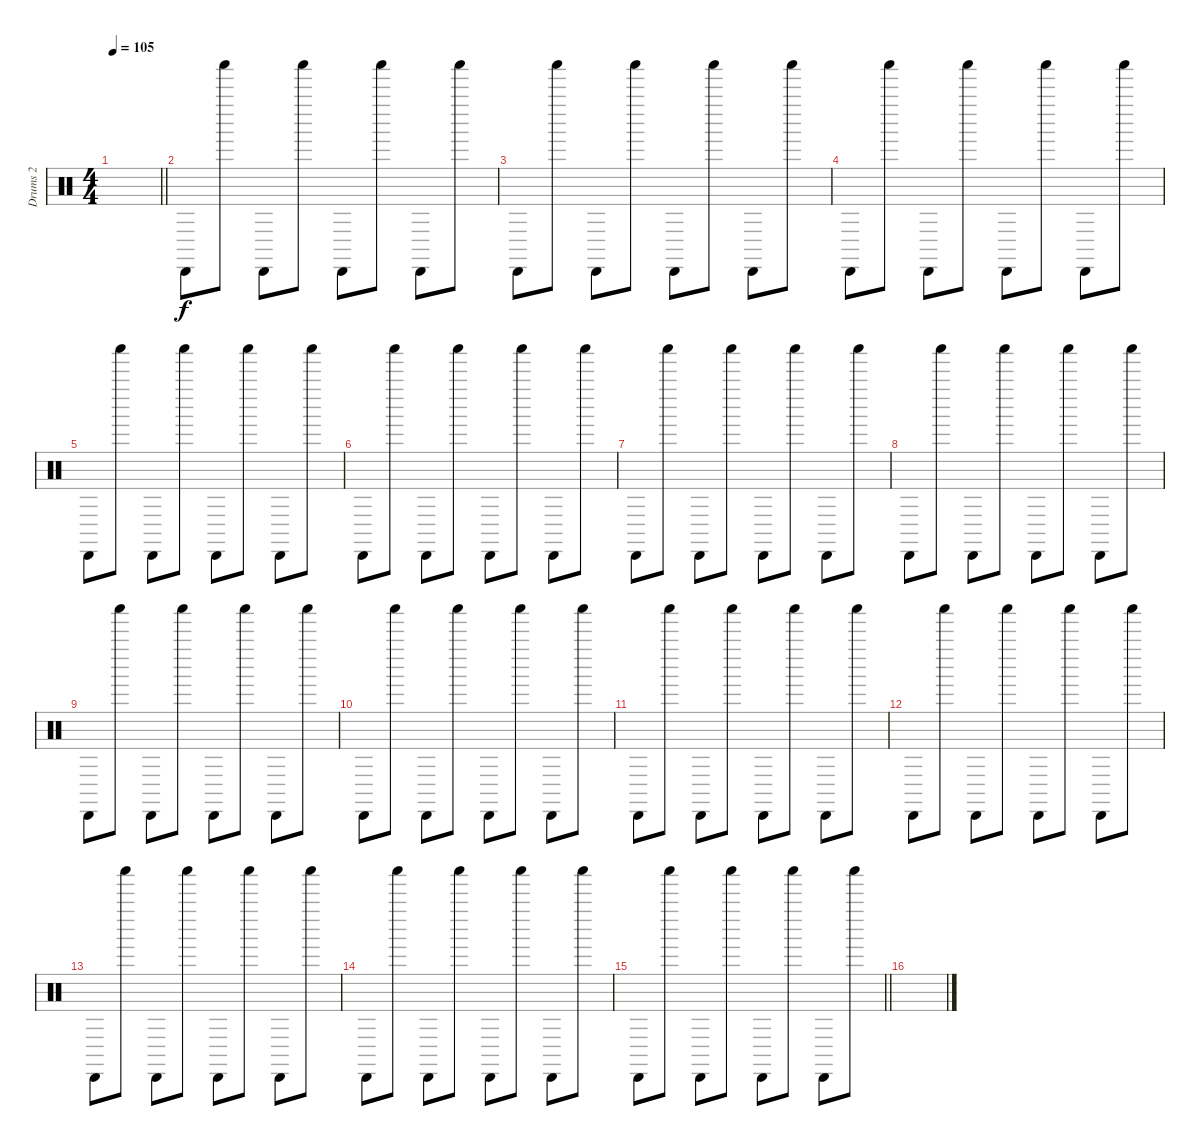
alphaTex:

\track ("Drums 2" "Drums 2") {instrument percussion}
\staff {score}
\articulation defaults
\ts (4 4)
\tempo 105
\clef neutral
\barLineRight lightlight
\ks c
|
\section ("" "")
"Cabasa (hit)".8 "Shaker (hit)".8 "Cabasa (hit)".8 "Shaker (hit)".8 "Cabasa (hit)".8 "Shaker (hit)".8 "Cabasa (hit)".8 "Shaker (hit)".8 |
"Cabasa (hit)".8 "Shaker (hit)".8 "Cabasa (hit)".8 "Shaker (hit)".8 "Cabasa (hit)".8 "Shaker (hit)".8 "Cabasa (hit)".8 "Shaker (hit)".8 |
"Cabasa (hit)".8 "Shaker (hit)".8 "Cabasa (hit)".8 "Shaker (hit)".8 "Cabasa (hit)".8 "Shaker (hit)".8 "Cabasa (hit)".8 "Shaker (hit)".8 |
"Cabasa (hit)".8 "Shaker (hit)".8 "Cabasa (hit)".8 "Shaker (hit)".8 "Cabasa (hit)".8 "Shaker (hit)".8 "Cabasa (hit)".8 "Shaker (hit)".8 |
"Cabasa (hit)".8 "Shaker (hit)".8 "Cabasa (hit)".8 "Shaker (hit)".8 "Cabasa (hit)".8 "Shaker (hit)".8 "Cabasa (hit)".8 "Shaker (hit)".8 |
"Cabasa (hit)".8 "Shaker (hit)".8 "Cabasa (hit)".8 "Shaker (hit)".8 "Cabasa (hit)".8 "Shaker (hit)".8 "Cabasa (hit)".8 "Shaker (hit)".8 |
"Cabasa (hit)".8 "Shaker (hit)".8 "Cabasa (hit)".8 "Shaker (hit)".8 "Cabasa (hit)".8 "Shaker (hit)".8 "Cabasa (hit)".8 "Shaker (hit)".8 |
"Cabasa (hit)".8 "Shaker (hit)".8 "Cabasa (hit)".8 "Shaker (hit)".8 "Cabasa (hit)".8 "Shaker (hit)".8 "Cabasa (hit)".8 "Shaker (hit)".8 |
"Cabasa (hit)".8 "Shaker (hit)".8 "Cabasa (hit)".8 "Shaker (hit)".8 "Cabasa (hit)".8 "Shaker (hit)".8 "Cabasa (hit)".8 "Shaker (hit)".8 |
"Cabasa (hit)".8 "Shaker (hit)".8 "Cabasa (hit)".8 "Shaker (hit)".8 "Cabasa (hit)".8 "Shaker (hit)".8 "Cabasa (hit)".8 "Shaker (hit)".8 |
"Cabasa (hit)".8 "Shaker (hit)".8 "Cabasa (hit)".8 "Shaker (hit)".8 "Cabasa (hit)".8 "Shaker (hit)".8 "Cabasa (hit)".8 "Shaker (hit)".8 |
"Cabasa (hit)".8 "Shaker (hit)".8 "Cabasa (hit)".8 "Shaker (hit)".8 "Cabasa (hit)".8 "Shaker (hit)".8 "Cabasa (hit)".8 "Shaker (hit)".8 |
"Cabasa (hit)".8 "Shaker (hit)".8 "Cabasa (hit)".8 "Shaker (hit)".8 "Cabasa (hit)".8 "Shaker (hit)".8 "Cabasa (hit)".8 "Shaker (hit)".8 |
\barLineRight lightlight "Cabasa (hit)".8 "Shaker (hit)".8 "Cabasa (hit)".8 "Shaker (hit)".8 "Cabasa (hit)".8 "Shaker (hit)".8 "Cabasa (hit)".8 "Shaker (hit)".8
|
\section ("" "")
